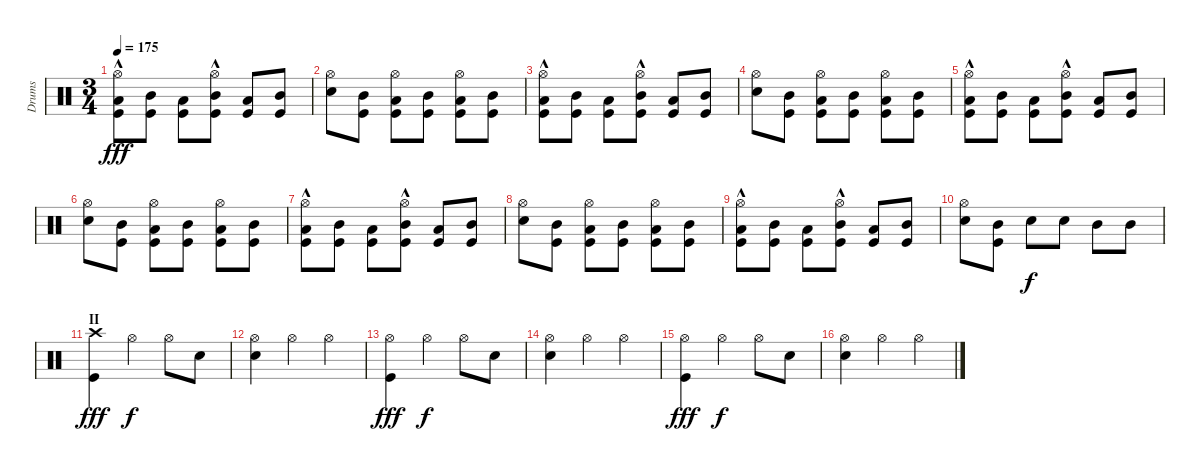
\track ("Drums" "Drums") {instrument percussion}
\staff {score}
\articulation defaults
\ts (3 4)
\tempo 175
\clef neutral
\ks c
("Hi-Hat (open)" "Low Tom (hit)"{hac} "Kick (hit)").8{dy fff} ("Mid Tom (hit)" "Kick (hit)").8 ("Low Tom (hit)" "Kick (hit)").8 ("Hi-Hat (open)" "Mid Tom (hit)"{hac} "Kick (hit)").8 ("Low Tom (hit)" "Kick (hit)").8 ("Mid Tom (hit)" "Kick (hit)").8 |
("Hi-Hat (open)" "Snare (hit) 2").8 ("Mid Tom (hit)" "Kick (hit)").8 ("Hi-Hat (open)" "Low Tom (hit)" "Kick (hit)").8 ("Mid Tom (hit)" "Kick (hit)").8 ("Hi-Hat (open)" "Low Tom (hit)" "Kick (hit)").8 ("Mid Tom (hit)" "Kick (hit)").8 |
("Hi-Hat (open)" "Low Tom (hit)"{hac} "Kick (hit)").8 ("Mid Tom (hit)" "Kick (hit)").8 ("Low Tom (hit)" "Kick (hit)").8 ("Hi-Hat (open)" "Mid Tom (hit)"{hac} "Kick (hit)").8 ("Low Tom (hit)" "Kick (hit)").8 ("Mid Tom (hit)" "Kick (hit)").8 |
("Hi-Hat (open)" "Snare (hit) 2").8 ("Mid Tom (hit)" "Kick (hit)").8 ("Hi-Hat (open)" "Low Tom (hit)" "Kick (hit)").8 ("Mid Tom (hit)" "Kick (hit)").8 ("Hi-Hat (open)" "Low Tom (hit)" "Kick (hit)").8 ("Mid Tom (hit)" "Kick (hit)").8 |
("Hi-Hat (open)" "Low Tom (hit)"{hac} "Kick (hit)").8 ("Mid Tom (hit)" "Kick (hit)").8 ("Low Tom (hit)" "Kick (hit)").8 ("Hi-Hat (open)" "Mid Tom (hit)"{hac} "Kick (hit)").8 ("Low Tom (hit)" "Kick (hit)").8 ("Mid Tom (hit)" "Kick (hit)").8 |
("Hi-Hat (open)" "Snare (hit) 2").8 ("Mid Tom (hit)" "Kick (hit)").8 ("Hi-Hat (open)" "Low Tom (hit)" "Kick (hit)").8 ("Mid Tom (hit)" "Kick (hit)").8 ("Hi-Hat (open)" "Low Tom (hit)" "Kick (hit)").8 ("Mid Tom (hit)" "Kick (hit)").8 |
("Hi-Hat (open)" "Low Tom (hit)"{hac} "Kick (hit)").8 ("Mid Tom (hit)" "Kick (hit)").8 ("Low Tom (hit)" "Kick (hit)").8 ("Hi-Hat (open)" "Mid Tom (hit)"{hac} "Kick (hit)").8 ("Low Tom (hit)" "Kick (hit)").8 ("Mid Tom (hit)" "Kick (hit)").8 |
("Hi-Hat (open)" "Snare (hit) 2").8 ("Mid Tom (hit)" "Kick (hit)").8 ("Hi-Hat (open)" "Low Tom (hit)" "Kick (hit)").8 ("Mid Tom (hit)" "Kick (hit)").8 ("Hi-Hat (open)" "Low Tom (hit)" "Kick (hit)").8 ("Mid Tom (hit)" "Kick (hit)").8 |
("Hi-Hat (open)" "Low Tom (hit)"{hac} "Kick (hit)").8 ("Mid Tom (hit)" "Kick (hit)").8 ("Low Tom (hit)" "Kick (hit)").8 ("Hi-Hat (open)" "Mid Tom (hit)"{hac} "Kick (hit)").8 ("Low Tom (hit)" "Kick (hit)").8 ("Mid Tom (hit)" "Kick (hit)").8 |
("Hi-Hat (open)" "Snare (hit) 2").8 ("Mid Tom (hit)" "Kick (hit)").8 "Snare (hit) 2".8{dy f} "Snare (hit) 2".8 "Mid Tom (hit)".8 "Mid Tom (hit)".8 |
\section ("" "II")
("Crash high (hit)" "Kick (hit)").4{dy fff} "Hi-Hat (open)".4{dy f} "Hi-Hat (open)".8 "Snare (hit) 2".8 |
("Hi-Hat (open)" "Snare (hit) 2").4 "Hi-Hat (open)".4 "Hi-Hat (open)".4 |
("Hi-Hat (open)" "Kick (hit)").4{dy fff} "Hi-Hat (open)".4{dy f} "Hi-Hat (open)".8 "Snare (hit) 2".8 |
("Hi-Hat (open)" "Snare (hit) 2").4 "Hi-Hat (open)".4 "Hi-Hat (open)".4 |
("Hi-Hat (open)" "Kick (hit)").4{dy fff} "Hi-Hat (open)".4{dy f} "Hi-Hat (open)".8 "Snare (hit) 2".8 |
("Hi-Hat (open)" "Snare (hit) 2").4 "Hi-Hat (open)".4 "Hi-Hat (open)".4
